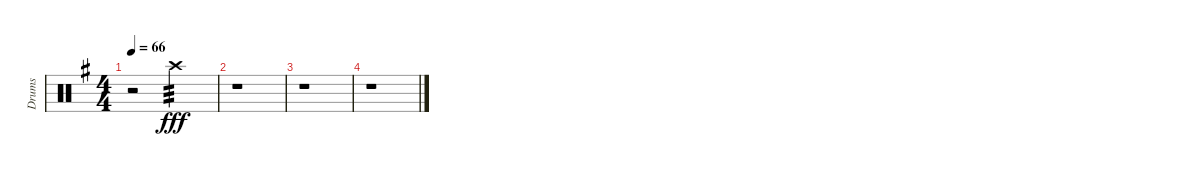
\track ("Drums" "Drums") {instrument percussion}
\staff {score}
\articulation defaults
\ts (4 4)
\tempo 66
\clef neutral
\ks g
r.2{dy fff volume 0} "Crash high (hit)".2{tp 3 volume 13} |
r.1 |
r.1 |
r.1
